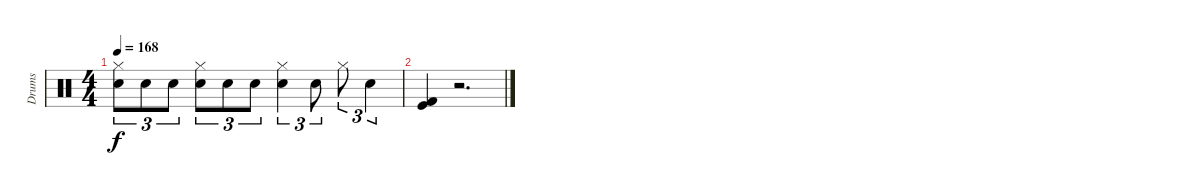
\track ("Drums" "Drums") {instrument percussion}
\staff {score}
\articulation defaults
\ts (4 4)
\tempo 168
\clef neutral
\ks c
("Electric Snare (hit)" "Hi-Hat (closed)").8{tu (3 2) dy f} "Electric Snare (hit)".8{tu (3 2)} "Electric Snare (hit)".8{tu (3 2)} ("Electric Snare (hit)" "Hi-Hat (closed)").8{tu (3 2)} "Electric Snare (hit)".8{tu (3 2)} "Electric Snare (hit)".8{tu (3 2)} ("Electric Snare (hit)" "Hi-Hat (closed)").4{tu (3 2)} "Electric Snare (hit)".8{tu (3 2)} "Hi-Hat (closed)".8{tu (3 2)} "Electric Snare (hit)".4{tu (3 2)} |
("Kick (hit) 2" "Kick (hit)").4{volume 13} r.2{d}
